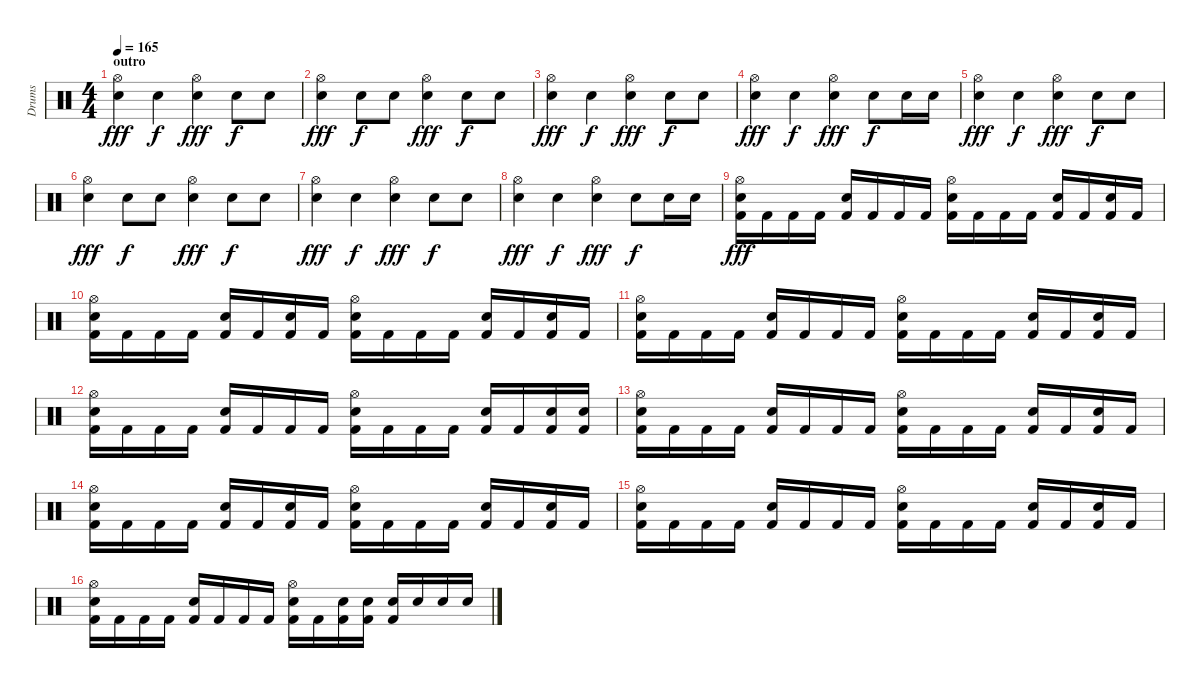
\track ("Drums" "Drums") {instrument percussion}
\staff {score}
\articulation defaults
\ts (4 4)
\section ("" "outro")
\tempo 165
\clef neutral
\ks c
("Hi-Hat (open)" "Electric Snare (hit)").4{dy fff} "Electric Snare (hit)".4{dy f} ("Electric Snare (hit)" "Hi-Hat (open)").4{dy fff} "Electric Snare (hit)".8{dy f} "Electric Snare (hit)".8 |
("Electric Snare (hit)" "Hi-Hat (open)").4{dy fff} "Electric Snare (hit)".8{dy f} "Electric Snare (hit)".8 ("Electric Snare (hit)" "Hi-Hat (open)").4{dy fff} "Electric Snare (hit)".8{dy f} "Electric Snare (hit)".8 |
("Hi-Hat (open)" "Electric Snare (hit)").4{dy fff} "Electric Snare (hit)".4{dy f} ("Electric Snare (hit)" "Hi-Hat (open)").4{dy fff} "Electric Snare (hit)".8{dy f} "Electric Snare (hit)".8 |
("Electric Snare (hit)" "Hi-Hat (open)").4{dy fff} "Electric Snare (hit)".4{dy f} ("Electric Snare (hit)" "Hi-Hat (open)").4{dy fff} "Electric Snare (hit)".8{dy f} "Electric Snare (hit)".16 "Electric Snare (hit)".16 |
("Hi-Hat (open)" "Electric Snare (hit)").4{dy fff} "Electric Snare (hit)".4{dy f} ("Electric Snare (hit)" "Hi-Hat (open)").4{dy fff} "Electric Snare (hit)".8{dy f} "Electric Snare (hit)".8 |
("Electric Snare (hit)" "Hi-Hat (open)").4{dy fff} "Electric Snare (hit)".8{dy f} "Electric Snare (hit)".8 ("Electric Snare (hit)" "Hi-Hat (open)").4{dy fff} "Electric Snare (hit)".8{dy f} "Electric Snare (hit)".8 |
("Hi-Hat (open)" "Electric Snare (hit)").4{dy fff} "Electric Snare (hit)".4{dy f} ("Electric Snare (hit)" "Hi-Hat (open)").4{dy fff} "Electric Snare (hit)".8{dy f} "Electric Snare (hit)".8 |
("Electric Snare (hit)" "Hi-Hat (open)").4{dy fff} "Electric Snare (hit)".4{dy f} ("Electric Snare (hit)" "Hi-Hat (open)").4{dy fff} "Electric Snare (hit)".8{dy f} "Electric Snare (hit)".16 "Electric Snare (hit)".16 |
("Hi-Hat (open)" "Electric Snare (hit)" "Kick (hit) 2").16{dy fff} "Kick (hit) 2".16 "Kick (hit) 2".16 "Kick (hit) 2".16 ("Electric Snare (hit)" "Kick (hit) 2").16 "Kick (hit) 2".16 "Kick (hit) 2".16 "Kick (hit) 2".16 ("Electric Snare (hit)" "Hi-Hat (open)" "Kick (hit) 2").16 "Kick (hit) 2".16 "Kick (hit) 2".16 "Kick (hit) 2".16 ("Electric Snare (hit)" "Kick (hit) 2").16 "Kick (hit) 2".16 ("Electric Snare (hit)" "Kick (hit) 2").16 "Kick (hit) 2".16 |
("Hi-Hat (open)" "Electric Snare (hit)" "Kick (hit) 2").16 "Kick (hit) 2".16 "Kick (hit) 2".16 "Kick (hit) 2".16 ("Electric Snare (hit)" "Kick (hit) 2").16 "Kick (hit) 2".16 ("Electric Snare (hit)" "Kick (hit) 2").16 "Kick (hit) 2".16 ("Electric Snare (hit)" "Hi-Hat (open)" "Kick (hit) 2").16 "Kick (hit) 2".16 "Kick (hit) 2".16 "Kick (hit) 2".16 ("Electric Snare (hit)" "Kick (hit) 2").16 "Kick (hit) 2".16 ("Electric Snare (hit)" "Kick (hit) 2").16 "Kick (hit) 2".16 |
("Hi-Hat (open)" "Electric Snare (hit)" "Kick (hit) 2").16 "Kick (hit) 2".16 "Kick (hit) 2".16 "Kick (hit) 2".16 ("Electric Snare (hit)" "Kick (hit) 2").16 "Kick (hit) 2".16 "Kick (hit) 2".16 "Kick (hit) 2".16 ("Electric Snare (hit)" "Hi-Hat (open)" "Kick (hit) 2").16 "Kick (hit) 2".16 "Kick (hit) 2".16 "Kick (hit) 2".16 ("Electric Snare (hit)" "Kick (hit) 2").16 "Kick (hit) 2".16 ("Electric Snare (hit)" "Kick (hit) 2").16 "Kick (hit) 2".16 |
("Hi-Hat (open)" "Electric Snare (hit)" "Kick (hit) 2").16 "Kick (hit) 2".16 "Kick (hit) 2".16 "Kick (hit) 2".16 ("Electric Snare (hit)" "Kick (hit) 2").16 "Kick (hit) 2".16 "Kick (hit) 2".16 "Kick (hit) 2".16 ("Electric Snare (hit)" "Hi-Hat (open)" "Kick (hit) 2").16 "Kick (hit) 2".16 "Kick (hit) 2".16 "Kick (hit) 2".16 ("Electric Snare (hit)" "Kick (hit) 2").16 "Kick (hit) 2".16 ("Electric Snare (hit)" "Kick (hit) 2").16 ("Electric Snare (hit)" "Kick (hit) 2").16 |
("Hi-Hat (open)" "Electric Snare (hit)" "Kick (hit) 2").16 "Kick (hit) 2".16 "Kick (hit) 2".16 "Kick (hit) 2".16 ("Electric Snare (hit)" "Kick (hit) 2").16 "Kick (hit) 2".16 "Kick (hit) 2".16 "Kick (hit) 2".16 ("Electric Snare (hit)" "Hi-Hat (open)" "Kick (hit) 2").16 "Kick (hit) 2".16 "Kick (hit) 2".16 "Kick (hit) 2".16 ("Electric Snare (hit)" "Kick (hit) 2").16 "Kick (hit) 2".16 ("Electric Snare (hit)" "Kick (hit) 2").16 "Kick (hit) 2".16 |
("Hi-Hat (open)" "Electric Snare (hit)" "Kick (hit) 2").16 "Kick (hit) 2".16 "Kick (hit) 2".16 "Kick (hit) 2".16 ("Electric Snare (hit)" "Kick (hit) 2").16 "Kick (hit) 2".16 ("Electric Snare (hit)" "Kick (hit) 2").16 "Kick (hit) 2".16 ("Electric Snare (hit)" "Hi-Hat (open)" "Kick (hit) 2").16 "Kick (hit) 2".16 "Kick (hit) 2".16 "Kick (hit) 2".16 ("Electric Snare (hit)" "Kick (hit) 2").16 "Kick (hit) 2".16 ("Electric Snare (hit)" "Kick (hit) 2").16 "Kick (hit) 2".16 |
("Hi-Hat (open)" "Electric Snare (hit)" "Kick (hit) 2").16 "Kick (hit) 2".16 "Kick (hit) 2".16 "Kick (hit) 2".16 ("Electric Snare (hit)" "Kick (hit) 2").16 "Kick (hit) 2".16 "Kick (hit) 2".16 "Kick (hit) 2".16 ("Electric Snare (hit)" "Hi-Hat (open)" "Kick (hit) 2").16 "Kick (hit) 2".16 "Kick (hit) 2".16 "Kick (hit) 2".16 ("Electric Snare (hit)" "Kick (hit) 2").16 "Kick (hit) 2".16 ("Electric Snare (hit)" "Kick (hit) 2").16 "Kick (hit) 2".16 |
("Hi-Hat (open)" "Electric Snare (hit)" "Kick (hit) 2").16 "Kick (hit) 2".16 "Kick (hit) 2".16 "Kick (hit) 2".16 ("Electric Snare (hit)" "Kick (hit) 2").16 "Kick (hit) 2".16 "Kick (hit) 2".16 "Kick (hit) 2".16 ("Electric Snare (hit)" "Hi-Hat (open)" "Kick (hit) 2").16 "Kick (hit) 2".16 ("Electric Snare (hit)" "Kick (hit) 2").16 ("Electric Snare (hit)" "Kick (hit) 2").16 ("Electric Snare (hit)" "Kick (hit) 2").16 "Snare (hit) 2".16 "Snare (hit) 2".16 "Snare (hit) 2".16
